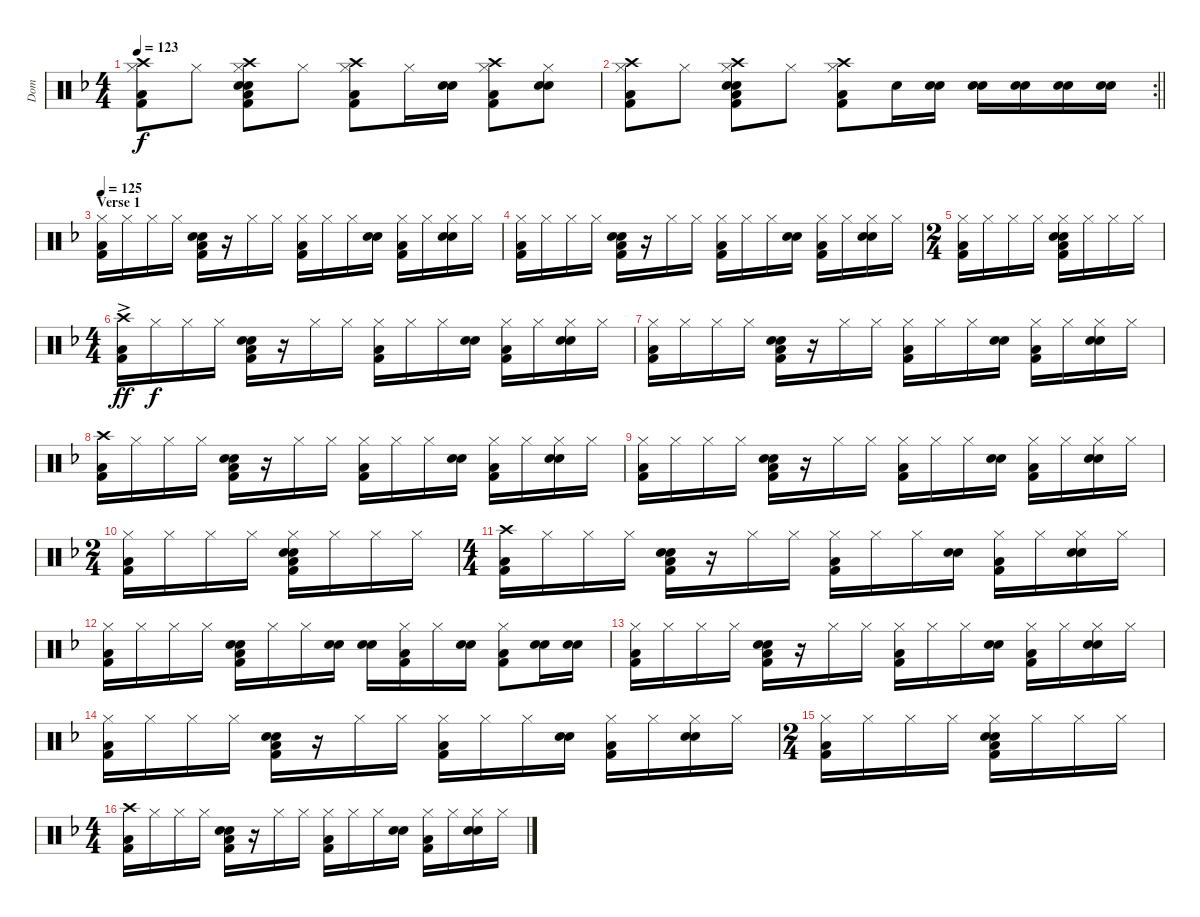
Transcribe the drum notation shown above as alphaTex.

\track ("Dom" "Dom") {instrument percussion}
\staff {score}
\articulation defaults
\ts (4 4)
\tempo 123
\clef neutral
\ks f
("Crash high (hit)" "Hi-Hat (closed)" "Low Floor Tom (hit)" "Kick (hit) 2").8{dy f} "Hi-Hat (closed)".8 ("Crash high (hit)" "Hi-Hat (closed)" "Snare (hit) 2" "Electric Snare (hit)" "Low Floor Tom (hit)" "Kick (hit) 2").8 "Hi-Hat (closed)".8 ("Crash high (hit)" "Hi-Hat (closed)" "Low Floor Tom (hit)" "Kick (hit) 2").8 "Hi-Hat (closed)".16 ("Snare (hit) 2" "Electric Snare (hit)").16 ("Crash high (hit)" "Hi-Hat (closed)" "Low Floor Tom (hit)" "Kick (hit) 2").8 ("Hi-Hat (closed)" "Snare (hit) 2" "Electric Snare (hit)").8 |
\rc 2
\barLineRight lightlight
("Crash high (hit)" "Hi-Hat (closed)" "Low Floor Tom (hit)" "Kick (hit) 2").8 "Hi-Hat (closed)".8 ("Crash high (hit)" "Hi-Hat (closed)" "Snare (hit) 2" "Electric Snare (hit)" "Low Floor Tom (hit)" "Kick (hit) 2").8 "Hi-Hat (closed)".8 ("Crash high (hit)" "Hi-Hat (closed)" "Low Floor Tom (hit)" "Kick (hit) 2").8 "Electric Snare (hit)".16 ("Snare (hit) 2" "Electric Snare (hit)").16 ("Snare (hit) 2" "Electric Snare (hit)").16 ("Snare (hit) 2" "Electric Snare (hit)").16 ("Snare (hit) 2" "Electric Snare (hit)").16 ("Snare (hit) 2" "Electric Snare (hit)").16 |
\section ("" "Verse 1")
\tempo 125
("Hi-Hat (closed)" "Low Floor Tom (hit)" "Kick (hit) 2").16 "Hi-Hat (closed)".16 "Hi-Hat (closed)".16 "Hi-Hat (closed)".16 ("Snare (hit) 2" "Electric Snare (hit)" "Low Floor Tom (hit)" "Kick (hit) 2").16 r.16 "Hi-Hat (closed)".16 "Hi-Hat (closed)".16 ("Hi-Hat (closed)" "Low Floor Tom (hit)" "Kick (hit) 2").16 "Hi-Hat (closed)".16 "Hi-Hat (closed)".16 ("Snare (hit) 2" "Electric Snare (hit)").16 ("Hi-Hat (closed)" "Low Floor Tom (hit)" "Kick (hit) 2").16 "Hi-Hat (closed)".16 ("Hi-Hat (closed)" "Snare (hit) 2" "Electric Snare (hit)").16 "Hi-Hat (closed)".16 |
("Hi-Hat (closed)" "Low Floor Tom (hit)" "Kick (hit) 2").16 "Hi-Hat (closed)".16 "Hi-Hat (closed)".16 "Hi-Hat (closed)".16 ("Snare (hit) 2" "Electric Snare (hit)" "Low Floor Tom (hit)" "Kick (hit) 2").16 r.16 "Hi-Hat (closed)".16 "Hi-Hat (closed)".16 ("Hi-Hat (closed)" "Low Floor Tom (hit)" "Kick (hit) 2").16 "Hi-Hat (closed)".16 "Hi-Hat (closed)".16 ("Snare (hit) 2" "Electric Snare (hit)").16 ("Hi-Hat (closed)" "Low Floor Tom (hit)" "Kick (hit) 2").16 "Hi-Hat (closed)".16 ("Hi-Hat (closed)" "Snare (hit) 2" "Electric Snare (hit)").16 "Hi-Hat (closed)".16 |
\ts (2 4)
("Hi-Hat (closed)" "Low Floor Tom (hit)" "Kick (hit) 2").16 "Hi-Hat (closed)".16 "Hi-Hat (closed)".16 "Hi-Hat (closed)".16 ("Hi-Hat (closed)" "Snare (hit) 2" "Electric Snare (hit)" "Low Floor Tom (hit)" "Kick (hit) 2").16 "Hi-Hat (closed)".16 "Hi-Hat (closed)".16 "Hi-Hat (closed)".16 |
\ts (4 4)
("Crash high (hit)"{ac} "Low Floor Tom (hit)" "Kick (hit) 2").16{dy ff} "Hi-Hat (closed)".16{dy f} "Hi-Hat (closed)".16 "Hi-Hat (closed)".16 ("Snare (hit) 2" "Electric Snare (hit)" "Low Floor Tom (hit)" "Kick (hit) 2").16 r.16 "Hi-Hat (closed)".16 "Hi-Hat (closed)".16 ("Hi-Hat (closed)" "Low Floor Tom (hit)" "Kick (hit) 2").16 "Hi-Hat (closed)".16 "Hi-Hat (closed)".16 ("Snare (hit) 2" "Electric Snare (hit)").16 ("Hi-Hat (closed)" "Low Floor Tom (hit)" "Kick (hit) 2").16 "Hi-Hat (closed)".16 ("Hi-Hat (closed)" "Snare (hit) 2" "Electric Snare (hit)").16 "Hi-Hat (closed)".16 |
("Hi-Hat (closed)" "Low Floor Tom (hit)" "Kick (hit) 2").16 "Hi-Hat (closed)".16 "Hi-Hat (closed)".16 "Hi-Hat (closed)".16 ("Snare (hit) 2" "Electric Snare (hit)" "Low Floor Tom (hit)" "Kick (hit) 2").16 r.16 "Hi-Hat (closed)".16 "Hi-Hat (closed)".16 ("Hi-Hat (closed)" "Low Floor Tom (hit)" "Kick (hit) 2").16 "Hi-Hat (closed)".16 "Hi-Hat (closed)".16 ("Snare (hit) 2" "Electric Snare (hit)").16 ("Hi-Hat (closed)" "Low Floor Tom (hit)" "Kick (hit) 2").16 "Hi-Hat (closed)".16 ("Hi-Hat (closed)" "Snare (hit) 2" "Electric Snare (hit)").16 "Hi-Hat (closed)".16 |
("Crash high (hit)" "Low Floor Tom (hit)" "Kick (hit) 2").16 "Hi-Hat (closed)".16 "Hi-Hat (closed)".16 "Hi-Hat (closed)".16 ("Snare (hit) 2" "Electric Snare (hit)" "Low Floor Tom (hit)" "Kick (hit) 2").16 r.16 "Hi-Hat (closed)".16 "Hi-Hat (closed)".16 ("Hi-Hat (closed)" "Low Floor Tom (hit)" "Kick (hit) 2").16 "Hi-Hat (closed)".16 "Hi-Hat (closed)".16 ("Snare (hit) 2" "Electric Snare (hit)").16 ("Hi-Hat (closed)" "Low Floor Tom (hit)" "Kick (hit) 2").16 "Hi-Hat (closed)".16 ("Hi-Hat (closed)" "Snare (hit) 2" "Electric Snare (hit)").16 "Hi-Hat (closed)".16 |
("Hi-Hat (closed)" "Low Floor Tom (hit)" "Kick (hit) 2").16 "Hi-Hat (closed)".16 "Hi-Hat (closed)".16 "Hi-Hat (closed)".16 ("Snare (hit) 2" "Electric Snare (hit)" "Low Floor Tom (hit)" "Kick (hit) 2").16 r.16 "Hi-Hat (closed)".16 "Hi-Hat (closed)".16 ("Hi-Hat (closed)" "Low Floor Tom (hit)" "Kick (hit) 2").16 "Hi-Hat (closed)".16 "Hi-Hat (closed)".16 ("Snare (hit) 2" "Electric Snare (hit)").16 ("Hi-Hat (closed)" "Low Floor Tom (hit)" "Kick (hit) 2").16 "Hi-Hat (closed)".16 ("Hi-Hat (closed)" "Snare (hit) 2" "Electric Snare (hit)").16 "Hi-Hat (closed)".16 |
\ts (2 4)
("Hi-Hat (closed)" "Low Floor Tom (hit)" "Kick (hit) 2").16 "Hi-Hat (closed)".16 "Hi-Hat (closed)".16 "Hi-Hat (closed)".16 ("Hi-Hat (closed)" "Snare (hit) 2" "Electric Snare (hit)" "Low Floor Tom (hit)" "Kick (hit) 2").16 "Hi-Hat (closed)".16 "Hi-Hat (closed)".16 "Hi-Hat (closed)".16 |
\ts (4 4)
("Crash high (hit)" "Low Floor Tom (hit)" "Kick (hit) 2").16 "Hi-Hat (closed)".16 "Hi-Hat (closed)".16 "Hi-Hat (closed)".16 ("Snare (hit) 2" "Electric Snare (hit)" "Low Floor Tom (hit)" "Kick (hit) 2").16 r.16 "Hi-Hat (closed)".16 "Hi-Hat (closed)".16 ("Hi-Hat (closed)" "Low Floor Tom (hit)" "Kick (hit) 2").16 "Hi-Hat (closed)".16 "Hi-Hat (closed)".16 ("Snare (hit) 2" "Electric Snare (hit)").16 ("Hi-Hat (closed)" "Low Floor Tom (hit)" "Kick (hit) 2").16 "Hi-Hat (closed)".16 ("Hi-Hat (closed)" "Snare (hit) 2" "Electric Snare (hit)").16 "Hi-Hat (closed)".16 |
("Hi-Hat (closed)" "Low Floor Tom (hit)" "Kick (hit) 2").16 "Hi-Hat (closed)".16 "Hi-Hat (closed)".16 "Hi-Hat (closed)".16 ("Snare (hit) 2" "Electric Snare (hit)" "Low Floor Tom (hit)" "Kick (hit) 2").16 "Hi-Hat (closed)".16 "Hi-Hat (closed)".16 ("Electric Snare (hit)" "Snare (hit) 2").16 ("Electric Snare (hit)" "Snare (hit) 2").16 ("Hi-Hat (closed)" "Low Floor Tom (hit)" "Kick (hit) 2").16 "Hi-Hat (closed)".16 ("Electric Snare (hit)" "Snare (hit) 2").16 ("Hi-Hat (closed)" "Low Floor Tom (hit)" "Kick (hit) 2").8 ("Electric Snare (hit)" "Snare (hit) 2").16 ("Electric Snare (hit)" "Snare (hit) 2").16 |
("Hi-Hat (closed)" "Low Floor Tom (hit)" "Kick (hit) 2").16 "Hi-Hat (closed)".16 "Hi-Hat (closed)".16 "Hi-Hat (closed)".16 ("Snare (hit) 2" "Electric Snare (hit)" "Low Floor Tom (hit)" "Kick (hit) 2").16 r.16 "Hi-Hat (closed)".16 "Hi-Hat (closed)".16 ("Hi-Hat (closed)" "Low Floor Tom (hit)" "Kick (hit) 2").16 "Hi-Hat (closed)".16 "Hi-Hat (closed)".16 ("Snare (hit) 2" "Electric Snare (hit)").16 ("Hi-Hat (closed)" "Low Floor Tom (hit)" "Kick (hit) 2").16 "Hi-Hat (closed)".16 ("Hi-Hat (closed)" "Snare (hit) 2" "Electric Snare (hit)").16 "Hi-Hat (closed)".16 |
("Hi-Hat (closed)" "Low Floor Tom (hit)" "Kick (hit) 2").16 "Hi-Hat (closed)".16 "Hi-Hat (closed)".16 "Hi-Hat (closed)".16 ("Snare (hit) 2" "Electric Snare (hit)" "Low Floor Tom (hit)" "Kick (hit) 2").16 r.16 "Hi-Hat (closed)".16 "Hi-Hat (closed)".16 ("Hi-Hat (closed)" "Low Floor Tom (hit)" "Kick (hit) 2").16 "Hi-Hat (closed)".16 "Hi-Hat (closed)".16 ("Snare (hit) 2" "Electric Snare (hit)").16 ("Hi-Hat (closed)" "Low Floor Tom (hit)" "Kick (hit) 2").16 "Hi-Hat (closed)".16 ("Hi-Hat (closed)" "Snare (hit) 2" "Electric Snare (hit)").16 "Hi-Hat (closed)".16 |
\ts (2 4)
("Hi-Hat (closed)" "Low Floor Tom (hit)" "Kick (hit) 2").16 "Hi-Hat (closed)".16 "Hi-Hat (closed)".16 "Hi-Hat (closed)".16 ("Hi-Hat (closed)" "Snare (hit) 2" "Electric Snare (hit)" "Low Floor Tom (hit)" "Kick (hit) 2").16 "Hi-Hat (closed)".16 "Hi-Hat (closed)".16 "Hi-Hat (closed)".16 |
\ts (4 4)
("Crash high (hit)" "Low Floor Tom (hit)" "Kick (hit) 2").16 "Hi-Hat (closed)".16 "Hi-Hat (closed)".16 "Hi-Hat (closed)".16 ("Snare (hit) 2" "Electric Snare (hit)" "Low Floor Tom (hit)" "Kick (hit) 2").16 r.16 "Hi-Hat (closed)".16 "Hi-Hat (closed)".16 ("Hi-Hat (closed)" "Low Floor Tom (hit)" "Kick (hit) 2").16 "Hi-Hat (closed)".16 "Hi-Hat (closed)".16 ("Snare (hit) 2" "Electric Snare (hit)").16 ("Hi-Hat (closed)" "Low Floor Tom (hit)" "Kick (hit) 2").16 "Hi-Hat (closed)".16 ("Hi-Hat (closed)" "Snare (hit) 2" "Electric Snare (hit)").16 "Hi-Hat (closed)".16
